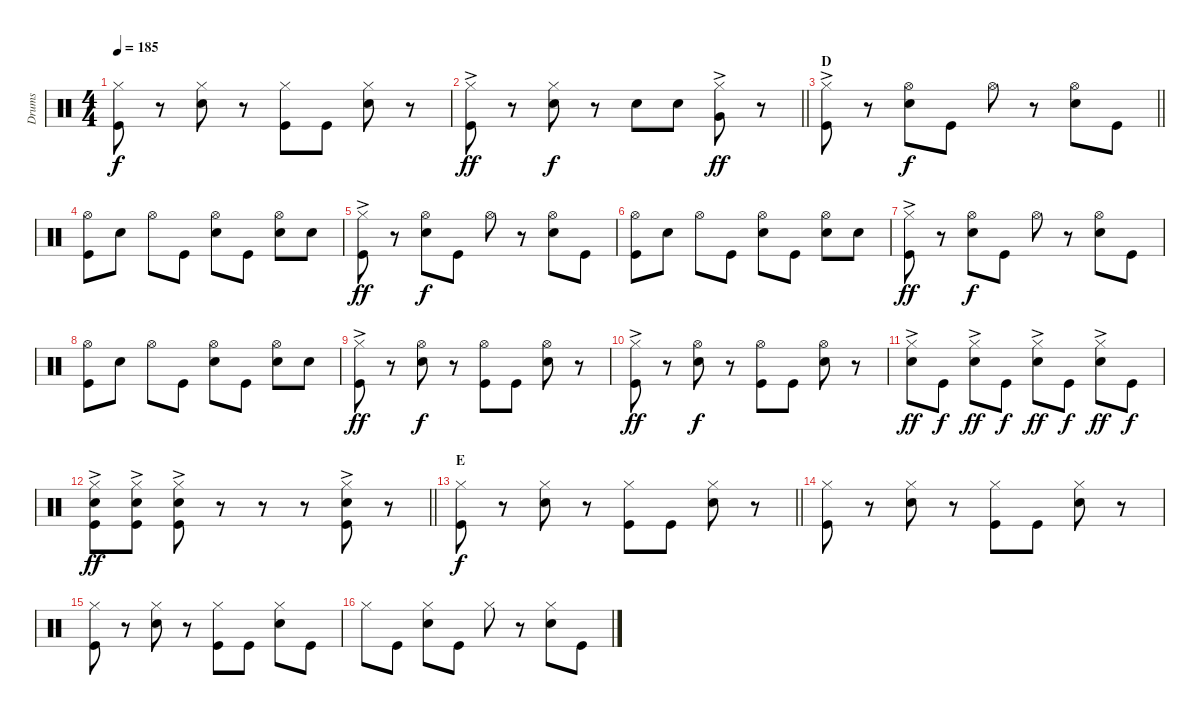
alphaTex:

\track ("Drums" "Drums") {instrument percussion}
\staff {score}
\articulation defaults
\ts (4 4)
\tempo 185
\clef neutral
\ks c
("Hi-Hat (closed)" "Kick (hit)").8{dy f} r.8 ("Hi-Hat (closed)" "Snare (hit) 2").8 r.8 ("Hi-Hat (closed)" "Kick (hit)").8 "Kick (hit)".8 ("Snare (hit) 2" "Hi-Hat (closed)").8 r.8 |
\barLineRight lightlight
("Hi-Hat (closed)"{ac} "Kick (hit)").8{dy ff} r.8 ("Snare (hit) 2" "Hi-Hat (closed)").8{dy f} r.8 "Snare (hit) 2".8 "Snare (hit) 2".8 ("Hi-Hat (closed)"{ac} "Very Low Tom (hit)").8{dy ff} r.8 |
\section ("" "D")
\barLineRight lightlight
("Hi-Hat (closed)"{ac} "Kick (hit)").8 r.8 ("Hi-Hat (open)" "Snare (hit) 2").8{dy f} "Kick (hit)".8 "Hi-Hat (open)".8 r.8 ("Hi-Hat (open)" "Snare (hit) 2").8 "Kick (hit)".8 |
("Hi-Hat (open)" "Kick (hit)").8 "Snare (hit) 2".8 "Hi-Hat (open)".8 "Kick (hit)".8 ("Hi-Hat (open)" "Snare (hit) 2").8 "Kick (hit)".8 ("Snare (hit) 2" "Hi-Hat (open)").8 "Snare (hit) 2".8 |
("Hi-Hat (closed)"{ac} "Kick (hit)").8{dy ff} r.8 ("Hi-Hat (open)" "Snare (hit) 2").8{dy f} "Kick (hit)".8 "Hi-Hat (open)".8 r.8 ("Hi-Hat (open)" "Snare (hit) 2").8 "Kick (hit)".8 |
("Hi-Hat (open)" "Kick (hit)").8 "Snare (hit) 2".8 "Hi-Hat (open)".8 "Kick (hit)".8 ("Hi-Hat (open)" "Snare (hit) 2").8 "Kick (hit)".8 ("Snare (hit) 2" "Hi-Hat (open)").8 "Snare (hit) 2".8 |
("Hi-Hat (closed)"{ac} "Kick (hit)").8{dy ff} r.8 ("Hi-Hat (open)" "Snare (hit) 2").8{dy f} "Kick (hit)".8 "Hi-Hat (open)".8 r.8 ("Hi-Hat (open)" "Snare (hit) 2").8 "Kick (hit)".8 |
("Hi-Hat (open)" "Kick (hit)").8 "Snare (hit) 2".8 "Hi-Hat (open)".8 "Kick (hit)".8 ("Hi-Hat (open)" "Snare (hit) 2").8 "Kick (hit)".8 ("Snare (hit) 2" "Hi-Hat (open)").8 "Snare (hit) 2".8 |
("Hi-Hat (closed)"{ac} "Kick (hit)").8{dy ff} r.8 ("Hi-Hat (open)" "Snare (hit) 2").8{dy f} r.8 ("Hi-Hat (open)" "Kick (hit)").8 "Kick (hit)".8 ("Hi-Hat (open)" "Snare (hit) 2").8 r.8 |
("Hi-Hat (closed)"{ac} "Kick (hit)").8{dy ff} r.8 ("Hi-Hat (open)" "Snare (hit) 2").8{dy f} r.8 ("Hi-Hat (open)" "Kick (hit)").8 "Kick (hit)".8 ("Hi-Hat (open)" "Snare (hit) 2").8 r.8 |
("Hi-Hat (closed)"{ac} "Snare (hit) 2").8{dy ff} "Kick (hit)".8{dy f} ("Hi-Hat (closed)"{ac} "Snare (hit) 2").8{dy ff} "Kick (hit)".8{dy f} ("Hi-Hat (closed)"{ac} "Snare (hit) 2").8{dy ff} "Kick (hit)".8{dy f} ("Hi-Hat (closed)"{ac} "Snare (hit) 2").8{dy ff} "Kick (hit)".8{dy f} |
\barLineRight lightlight
("Hi-Hat (closed)"{ac} "Snare (hit) 2" "Kick (hit)").8{dy ff} ("Snare (hit) 2" "Kick (hit)" "Hi-Hat (closed)"{ac}).8 ("Hi-Hat (closed)"{ac} "Kick (hit)" "Snare (hit) 2").8 r.8 r.8 r.8 ("Kick (hit)" "Snare (hit) 2" "Hi-Hat (closed)"{ac}).8 r.8 |
\section ("" "E")
\barLineRight lightlight
("Hi-Hat (closed)" "Kick (hit)").8{dy f} r.8 ("Hi-Hat (closed)" "Snare (hit) 2").8 r.8 ("Hi-Hat (closed)" "Kick (hit)").8 "Kick (hit)".8 ("Hi-Hat (closed)" "Snare (hit) 2").8 r.8 |
("Hi-Hat (closed)" "Kick (hit)").8 r.8 ("Hi-Hat (closed)" "Snare (hit) 2").8 r.8 ("Hi-Hat (closed)" "Kick (hit)").8 "Kick (hit)".8 ("Hi-Hat (closed)" "Snare (hit) 2").8 r.8 |
("Hi-Hat (closed)" "Kick (hit)").8 r.8 ("Hi-Hat (closed)" "Snare (hit) 2").8 r.8 ("Hi-Hat (closed)" "Kick (hit)").8 "Kick (hit)".8 ("Hi-Hat (closed)" "Snare (hit) 2").8 "Kick (hit)".8 |
"Hi-Hat (closed)".8 "Kick (hit)".8 ("Hi-Hat (closed)" "Snare (hit) 2").8 "Kick (hit)".8 "Hi-Hat (closed)".8 r.8 ("Hi-Hat (closed)" "Snare (hit) 2").8 "Kick (hit)".8
